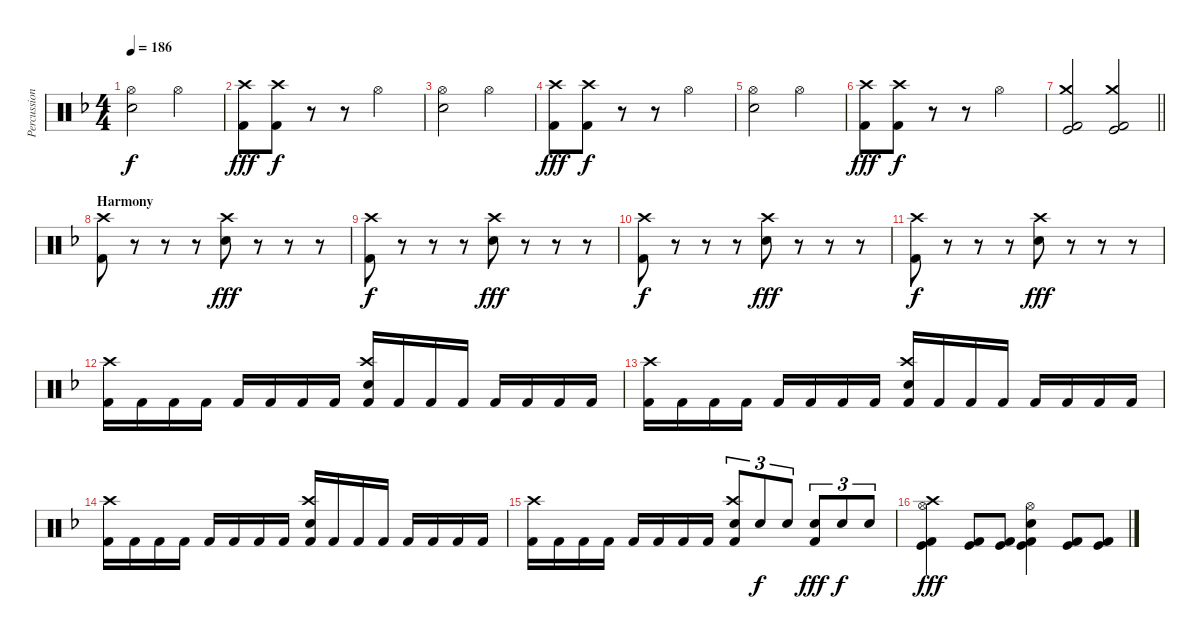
\track ("Percussion" "Percussion") {instrument percussion}
\staff {score}
\articulation defaults
\ts (4 4)
\tempo 186
\clef neutral
\ks f
("Hi-Hat (open)" "Snare (hit) 2").2{dy f} "Hi-Hat (open)".2 |
("Crash high (hit)" "Kick (hit) 2").8{dy fff} ("Crash high (hit)" "Kick (hit) 2").8{dy f} r.8 r.8 "Hi-Hat (open)".2 |
("Hi-Hat (open)" "Snare (hit) 2").2 "Hi-Hat (open)".2 |
("Crash high (hit)" "Kick (hit) 2").8{dy fff} ("Crash high (hit)" "Kick (hit) 2").8{dy f} r.8 r.8 "Hi-Hat (open)".2 |
("Hi-Hat (open)" "Snare (hit) 2").2 "Hi-Hat (open)".2 |
("Crash high (hit)" "Kick (hit) 2").8{dy fff} ("Crash high (hit)" "Kick (hit) 2").8{dy f} r.8 r.8 "Hi-Hat (open)".2 |
\barLineRight lightlight
("Crash medium (hit)" "Kick (hit)" "Kick (hit) 2").2 ("Crash medium (hit)" "Kick (hit)" "Kick (hit) 2").2 |
\section ("" "Harmony")
("Crash high (hit)" "Kick (hit) 2").8 r.8 r.8 r.8 ("Crash high (hit)" "Snare (hit) 2").8{dy fff} r.8 r.8 r.8 |
("Crash high (hit)" "Kick (hit) 2").8{dy f} r.8 r.8 r.8 ("Crash high (hit)" "Snare (hit) 2").8{dy fff} r.8 r.8 r.8 |
("Crash high (hit)" "Kick (hit) 2").8{dy f} r.8 r.8 r.8 ("Crash high (hit)" "Snare (hit) 2").8{dy fff} r.8 r.8 r.8 |
("Crash high (hit)" "Kick (hit) 2").8{dy f} r.8 r.8 r.8 ("Crash high (hit)" "Snare (hit) 2").8{dy fff} r.8 r.8 r.8 |
("Crash high (hit)" "Kick (hit) 2").16 "Kick (hit) 2".16 "Kick (hit) 2".16 "Kick (hit) 2".16 "Kick (hit) 2".16 "Kick (hit) 2".16 "Kick (hit) 2".16 "Kick (hit) 2".16 ("Crash high (hit)" "Snare (hit) 2" "Kick (hit) 2").16 "Kick (hit) 2".16 "Kick (hit) 2".16 "Kick (hit) 2".16 "Kick (hit) 2".16 "Kick (hit) 2".16 "Kick (hit) 2".16 "Kick (hit) 2".16 |
("Crash high (hit)" "Kick (hit) 2").16 "Kick (hit) 2".16 "Kick (hit) 2".16 "Kick (hit) 2".16 "Kick (hit) 2".16 "Kick (hit) 2".16 "Kick (hit) 2".16 "Kick (hit) 2".16 ("Crash high (hit)" "Snare (hit) 2" "Kick (hit) 2").16 "Kick (hit) 2".16 "Kick (hit) 2".16 "Kick (hit) 2".16 "Kick (hit) 2".16 "Kick (hit) 2".16 "Kick (hit) 2".16 "Kick (hit) 2".16 |
("Crash high (hit)" "Kick (hit) 2").16 "Kick (hit) 2".16 "Kick (hit) 2".16 "Kick (hit) 2".16 "Kick (hit) 2".16 "Kick (hit) 2".16 "Kick (hit) 2".16 "Kick (hit) 2".16 ("Crash high (hit)" "Snare (hit) 2" "Kick (hit) 2").16 "Kick (hit) 2".16 "Kick (hit) 2".16 "Kick (hit) 2".16 "Kick (hit) 2".16 "Kick (hit) 2".16 "Kick (hit) 2".16 "Kick (hit) 2".16 |
("Crash high (hit)" "Kick (hit) 2").16 "Kick (hit) 2".16 "Kick (hit) 2".16 "Kick (hit) 2".16 "Kick (hit) 2".16 "Kick (hit) 2".16 "Kick (hit) 2".16 "Kick (hit) 2".16 ("Crash high (hit)" "Snare (hit) 2" "Kick (hit) 2").8{tu (3 2)} "Snare (hit) 2".8{tu (3 2) dy f} "Snare (hit) 2".8{tu (3 2)} ("Snare (hit) 2" "Kick (hit) 2").8{tu (3 2) dy fff} "Snare (hit) 2".8{tu (3 2) dy f} "Snare (hit) 2".8{tu (3 2)} |
("Crash high (hit)" "Kick (hit)" "Kick (hit) 2" "Hi-Hat (open)").4{dy fff} ("Kick (hit)" "Kick (hit) 2").8 ("Kick (hit)" "Kick (hit) 2").8 ("Snare (hit) 2" "Kick (hit)" "Kick (hit) 2" "Hi-Hat (open)").4 ("Kick (hit)" "Kick (hit) 2").8 ("Kick (hit)" "Kick (hit) 2").8
